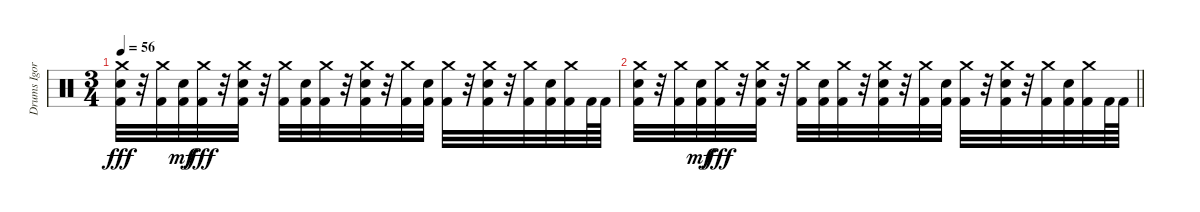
\track ("Drums Igor" "Drums Igor") {instrument percussion}
\staff {score}
\articulation defaults
\ts (3 4)
\tempo 56
\clef neutral
\ks c
("Crash medium (hit)" "Electric Snare (hit)" "Kick (hit) 2").32{dy fff} r.32 ("Crash medium (hit)" "Kick (hit) 2").32 ("Electric Snare (hit)" "Kick (hit) 2").32{dy mf} ("Crash medium (hit)" "Kick (hit) 2").32{dy fff} r.32 ("Crash medium (hit)" "Electric Snare (hit)" "Kick (hit) 2").32 r.32 ("Crash medium (hit)" "Kick (hit) 2").32 ("Electric Snare (hit)" "Kick (hit) 2").32 ("Crash medium (hit)" "Kick (hit) 2").32 r.32 ("Crash medium (hit)" "Electric Snare (hit)" "Kick (hit) 2").32 r.32 ("Crash medium (hit)" "Kick (hit) 2").32 ("Electric Snare (hit)" "Kick (hit) 2").32 ("Crash medium (hit)" "Kick (hit) 2").32 r.32 ("Crash medium (hit)" "Electric Snare (hit)" "Kick (hit) 2").32 r.32 ("Crash medium (hit)" "Kick (hit) 2").32 ("Electric Snare (hit)" "Kick (hit) 2").32 ("Crash medium (hit)" "Kick (hit) 2").32 "Kick (hit) 2".64 "Kick (hit) 2".64 |
\barLineRight lightlight
("Crash medium (hit)" "Electric Snare (hit)" "Kick (hit) 2").32 r.32 ("Crash medium (hit)" "Kick (hit) 2").32 ("Electric Snare (hit)" "Kick (hit) 2").32{dy mf} ("Crash medium (hit)" "Kick (hit) 2").32{dy fff} r.32 ("Crash medium (hit)" "Electric Snare (hit)" "Kick (hit) 2").32 r.32 ("Crash medium (hit)" "Kick (hit) 2").32 ("Electric Snare (hit)" "Kick (hit) 2").32 ("Crash medium (hit)" "Kick (hit) 2").32 r.32 ("Crash medium (hit)" "Electric Snare (hit)" "Kick (hit) 2").32 r.32 ("Crash medium (hit)" "Kick (hit) 2").32 ("Electric Snare (hit)" "Kick (hit) 2").32 ("Crash medium (hit)" "Kick (hit) 2").32 r.32 ("Crash medium (hit)" "Electric Snare (hit)" "Kick (hit) 2").32 r.32 ("Crash medium (hit)" "Kick (hit) 2").32 ("Electric Snare (hit)" "Kick (hit) 2").32 ("Crash medium (hit)" "Kick (hit) 2").32 "Kick (hit) 2".64 "Kick (hit) 2".64
